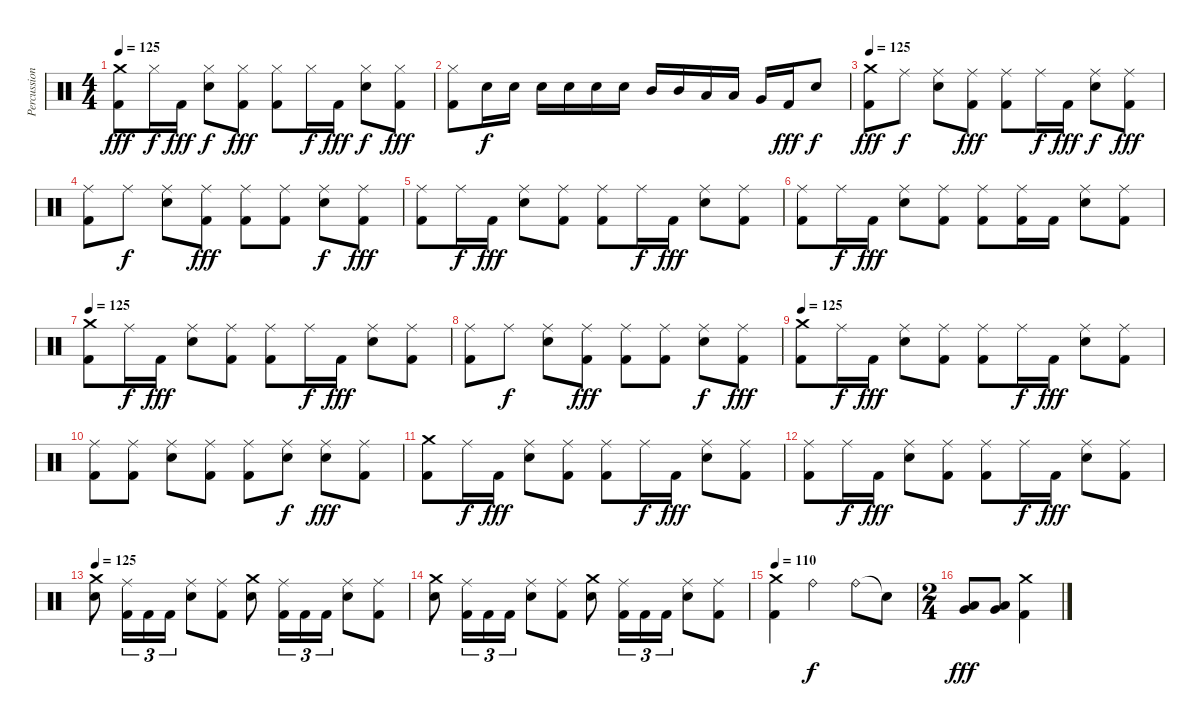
\track ("Percussion" "Percussion") {instrument percussion}
\staff {score}
\articulation defaults
\ts (4 4)
\tempo 125
\clef neutral
\ks c
("Crash medium (hit)" "Kick (hit) 2").8{dy fff} "Hi-Hat (closed)".16{dy f} "Kick (hit) 2".16{dy fff} ("Hi-Hat (closed)" "Electric Snare (hit)").8{dy f} ("Hi-Hat (closed)" "Kick (hit) 2").8{dy fff} ("Hi-Hat (closed)" "Kick (hit) 2").8 "Hi-Hat (closed)".16{dy f} "Kick (hit) 2".16{dy fff} ("Hi-Hat (closed)" "Electric Snare (hit)").8{dy f} ("Hi-Hat (closed)" "Kick (hit) 2").8{dy fff} |
("Hi-Hat (closed)" "Kick (hit) 2").8 "Electric Snare (hit)".16{dy f} "Electric Snare (hit)".16 "Electric Snare (hit)".16 "Electric Snare (hit)".16 "Electric Snare (hit)".16 "Electric Snare (hit)".16 "Mid Tom (hit)".16 "Mid Tom (hit)".16 "Low Tom (hit)".16 "Low Tom (hit)".16 "Very Low Tom (hit)".16 "Kick (hit) 2".16{dy fff} "Electric Snare (hit)".8{dy f} |
\tempo 125
("Crash medium (hit)" "Kick (hit) 2").8{dy fff} "Ride (middle)".8{dy f} ("Ride (middle)" "Electric Snare (hit)").8 ("Ride (middle)" "Kick (hit) 2").8{dy fff} ("Ride (middle)" "Kick (hit) 2").8 "Ride (middle)".16{dy f} "Kick (hit) 2".16{dy fff} ("Ride (middle)" "Electric Snare (hit)").8{dy f} ("Ride (middle)" "Kick (hit) 2").8{dy fff} |
("Ride (middle)" "Kick (hit) 2").8 "Ride (middle)".8{dy f} ("Ride (middle)" "Electric Snare (hit)").8 ("Ride (middle)" "Kick (hit) 2").8{dy fff} ("Ride (middle)" "Kick (hit) 2").8 ("Ride (middle)" "Kick (hit) 2").8 ("Ride (middle)" "Electric Snare (hit)").8{dy f} ("Ride (middle)" "Kick (hit) 2").8{dy fff} |
("Ride (middle)" "Kick (hit) 2").8 "Ride (middle)".16{dy f} "Kick (hit) 2".16{dy fff} ("Ride (middle)" "Electric Snare (hit)").8 ("Ride (middle)" "Kick (hit) 2").8 ("Ride (middle)" "Kick (hit) 2").8 "Ride (middle)".16{dy f} "Kick (hit) 2".16{dy fff} ("Ride (middle)" "Electric Snare (hit)").8 ("Ride (middle)" "Kick (hit) 2").8 |
("Ride (middle)" "Kick (hit) 2").8 "Ride (middle)".16{dy f} "Kick (hit) 2".16{dy fff} ("Ride (middle)" "Electric Snare (hit)").8 ("Ride (middle)" "Kick (hit) 2").8 ("Ride (middle)" "Kick (hit) 2").8 ("Ride (middle)" "Kick (hit) 2").16 "Kick (hit) 2".16 ("Ride (middle)" "Electric Snare (hit)").8 ("Ride (middle)" "Kick (hit) 2").8 |
\tempo 125
("Crash medium (hit)" "Kick (hit) 2").8 "Ride (middle)".16{dy f} "Kick (hit) 2".16{dy fff} ("Ride (middle)" "Electric Snare (hit)").8 ("Ride (middle)" "Kick (hit) 2").8 ("Ride (middle)" "Kick (hit) 2").8 "Ride (middle)".16{dy f} "Kick (hit) 2".16{dy fff} ("Ride (middle)" "Electric Snare (hit)").8 ("Ride (middle)" "Kick (hit) 2").8 |
("Ride (middle)" "Kick (hit) 2").8 "Ride (middle)".8{dy f} ("Ride (middle)" "Electric Snare (hit)").8 ("Ride (middle)" "Kick (hit) 2").8{dy fff} ("Ride (middle)" "Kick (hit) 2").8 ("Ride (middle)" "Kick (hit) 2").8 ("Ride (middle)" "Electric Snare (hit)").8{dy f} ("Ride (middle)" "Kick (hit) 2").8{dy fff} |
\tempo 125
("Crash medium (hit)" "Kick (hit) 2").8 "Ride (middle)".16{dy f} "Kick (hit) 2".16{dy fff} ("Ride (middle)" "Electric Snare (hit)").8 ("Ride (middle)" "Kick (hit) 2").8 ("Ride (middle)" "Kick (hit) 2").8 "Ride (middle)".16{dy f} "Kick (hit) 2".16{dy fff} ("Ride (middle)" "Electric Snare (hit)").8 ("Ride (middle)" "Kick (hit) 2").8 |
("Ride (middle)" "Kick (hit) 2").8 ("Ride (middle)" "Kick (hit) 2").8 ("Ride (middle)" "Electric Snare (hit)").8 ("Ride (middle)" "Kick (hit) 2").8 ("Ride (middle)" "Kick (hit) 2").8 ("Ride (middle)" "Electric Snare (hit)").8{dy f} ("Ride (middle)" "Electric Snare (hit)").8{dy fff} ("Ride (middle)" "Kick (hit) 2").8 |
("Crash medium (hit)" "Kick (hit) 2").8 "Ride (middle)".16{dy f} "Kick (hit) 2".16{dy fff} ("Ride (middle)" "Electric Snare (hit)").8 ("Ride (middle)" "Kick (hit) 2").8 ("Ride (middle)" "Kick (hit) 2").8 "Ride (middle)".16{dy f} "Kick (hit) 2".16{dy fff} ("Ride (middle)" "Electric Snare (hit)").8 ("Ride (middle)" "Kick (hit) 2").8 |
("Ride (middle)" "Kick (hit) 2").8 "Ride (middle)".16{dy f} "Kick (hit) 2".16{dy fff} ("Ride (middle)" "Electric Snare (hit)").8 ("Ride (middle)" "Kick (hit) 2").8 ("Ride (middle)" "Kick (hit) 2").8 "Ride (middle)".16{dy f} "Kick (hit) 2".16{dy fff} ("Ride (middle)" "Electric Snare (hit)").8 ("Ride (middle)" "Kick (hit) 2").8 |
\tempo 125
("Crash medium (hit)" "Snare (hit) 2").8 ("Ride (middle)" "Kick (hit) 2").16{tu (3 2)} "Kick (hit) 2".16{tu (3 2)} "Kick (hit) 2".16{tu (3 2)} ("Ride (middle)" "Snare (hit) 2").8 ("Ride (middle)" "Kick (hit) 2").8 ("Crash medium (hit)" "Snare (hit) 2").8 ("Ride (middle)" "Kick (hit) 2").16{tu (3 2)} "Kick (hit) 2".16{tu (3 2)} "Kick (hit) 2".16{tu (3 2)} ("Ride (middle)" "Snare (hit) 2").8 ("Ride (middle)" "Kick (hit) 2").8 |
("Crash medium (hit)" "Snare (hit) 2").8 ("Ride (middle)" "Kick (hit) 2").16{tu (3 2)} "Kick (hit) 2".16{tu (3 2)} "Kick (hit) 2".16{tu (3 2)} ("Ride (middle)" "Snare (hit) 2").8 ("Ride (middle)" "Kick (hit) 2").8 ("Crash medium (hit)" "Snare (hit) 2").8 ("Ride (middle)" "Kick (hit) 2").16{tu (3 2)} "Kick (hit) 2".16{tu (3 2)} "Kick (hit) 2".16{tu (3 2)} ("Ride (middle)" "Snare (hit) 2").8 ("Ride (middle)" "Kick (hit) 2").8 |
\tempo 110
("Crash medium (hit)" "Kick (hit) 2").4 "Ride (bell)".2{dy f} "Ride (bell)".8 "Snare (hit)"{t}.8 |
\ts (2 4)
("Very Low Tom (hit)" "Low Tom (hit)").8{dy fff} ("Very Low Tom (hit)" "Low Tom (hit)").8 ("Crash medium (hit)" "Kick (hit) 2").4
